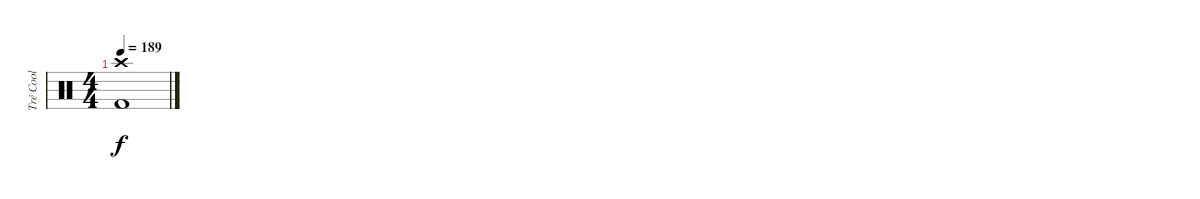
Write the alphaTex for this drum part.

\track ("Tré Cool" "Tré Cool") {instrument percussion}
\staff {score}
\articulation defaults
\ts (4 4)
\tempo 189
\clef neutral
\ks c
("Crash high (hit)" "Kick (hit) 2").1{dy f}
